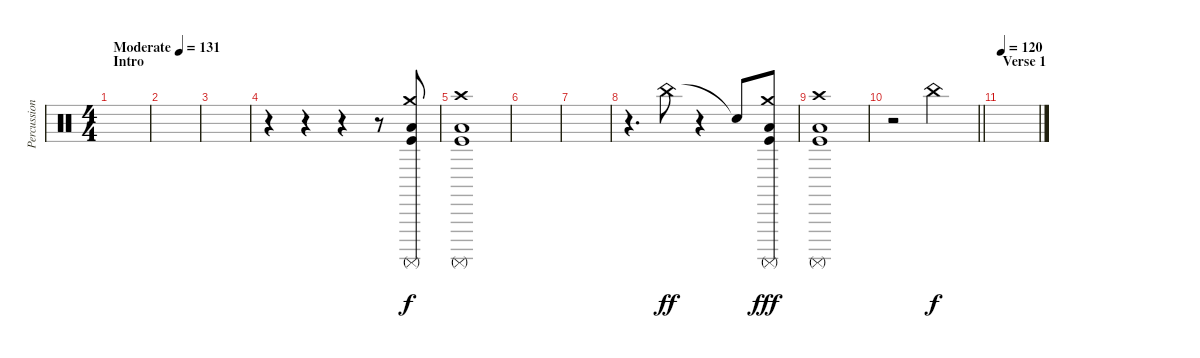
\track ("Percussion" "Percussion") {instrument percussion}
\staff {score}
\articulation defaults
\ts (4 4)
\section ("" "Intro")
\tempo (131 "Moderate")
\clef neutral
\ks c
|
|
|
r.4 r.4 r.4 r.8 ("Low Floor Tom (hit)" "Kick (hit)" "Crash medium (hit)" "Surdo (mute)").8 |
("Low Floor Tom (hit)" "Kick (hit)" "Crash high (hit)" "Surdo (mute)").1 |
|
|
r.4{d} "China (hit)".8{dy ff} r.4 "Snare (hit)"{t}.8 ("Low Floor Tom (hit)" "Kick (hit)" "Crash medium (hit)" "Surdo (mute)").8{dy fff} |
("Low Floor Tom (hit)" "Kick (hit)" "Crash high (hit)" "Surdo (mute)").1 |
\barLineRight lightlight
r.2 "China (hit)".2{dy f} |
\section ("" "Verse 1")
\tempo 120
